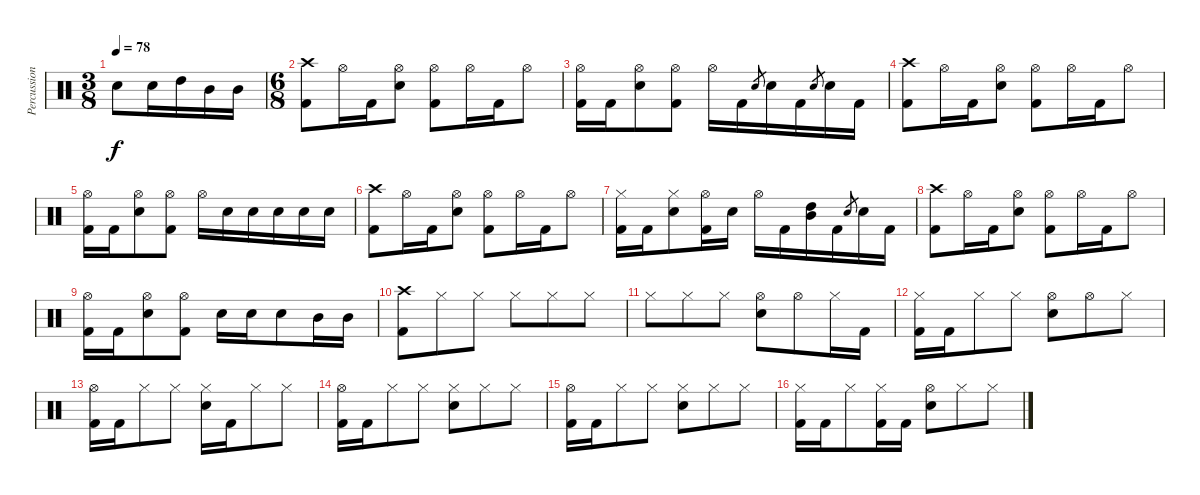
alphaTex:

\track ("Percussion" "Percussion") {instrument percussion}
\staff {score}
\articulation defaults
\ts (3 8)
\tempo 78
\clef neutral
\ks c "Electric Snare (hit)".8{dy f} "Electric Snare (hit)".16 "High Tom (hit)".16 "Mid Tom (hit)".16 "Mid Tom (hit)".16
|
\ts (6 8)
("Crash high (hit)" "Kick (hit) 2").8 "Hi-Hat (open)".16 "Kick (hit) 2".16 ("Hi-Hat (open)" "Electric Snare (hit)").8 ("Hi-Hat (open)" "Kick (hit) 2").8 "Hi-Hat (open)".16 "Kick (hit) 2".16 "Hi-Hat (open)".8 |
("Hi-Hat (open)" "Kick (hit) 2").16 "Kick (hit) 2".16 ("Hi-Hat (open)" "Electric Snare (hit)").8 ("Hi-Hat (open)" "Kick (hit) 2").8 "Hi-Hat (open)".16 "Kick (hit) 2".16 "Electric Snare (hit)".8{gr} "Electric Snare (hit)".16 "Kick (hit) 2".16 "Electric Snare (hit)".8{gr} "Electric Snare (hit)".16 "Kick (hit) 2".16 |
("Crash high (hit)" "Kick (hit) 2").8 "Hi-Hat (open)".16 "Kick (hit) 2".16 ("Hi-Hat (open)" "Electric Snare (hit)").8 ("Hi-Hat (open)" "Kick (hit) 2").8 "Hi-Hat (open)".16 "Kick (hit) 2".16 "Hi-Hat (open)".8 |
("Hi-Hat (open)" "Kick (hit) 2").16 "Kick (hit) 2".16 ("Hi-Hat (open)" "Electric Snare (hit)").8 ("Hi-Hat (open)" "Kick (hit) 2").8 "Hi-Hat (open)".16 "Electric Snare (hit)".16 "Electric Snare (hit)".16 "Electric Snare (hit)".16 "Electric Snare (hit)".16 "Electric Snare (hit)".16 |
("Crash high (hit)" "Kick (hit) 2").8 "Hi-Hat (open)".16 "Kick (hit) 2".16 ("Hi-Hat (open)" "Electric Snare (hit)").8 ("Hi-Hat (open)" "Kick (hit) 2").8 "Hi-Hat (open)".16 "Kick (hit) 2".16 "Hi-Hat (open)".8 |
("Hi-Hat (closed)" "Kick (hit) 2").16 "Kick (hit) 2".16 ("Hi-Hat (closed)" "Electric Snare (hit)").8 ("Hi-Hat (open)" "Kick (hit) 2").16 "Electric Snare (hit)".16 "Hi-Hat (open)".16 "Kick (hit) 2".16 ("High Tom (hit)" "Mid Tom (hit)").16 "Kick (hit) 2".16 "Electric Snare (hit)".8{gr} "Electric Snare (hit)".16 "Kick (hit) 2".16 |
("Crash high (hit)" "Kick (hit) 2").8 "Hi-Hat (open)".16 "Kick (hit) 2".16 ("Hi-Hat (open)" "Electric Snare (hit)").8 ("Hi-Hat (open)" "Kick (hit) 2").8 "Hi-Hat (open)".16 "Kick (hit) 2".16 "Hi-Hat (open)".8 |
("Hi-Hat (open)" "Kick (hit) 2").16 "Kick (hit) 2".16 ("Hi-Hat (open)" "Electric Snare (hit)").8 ("Hi-Hat (open)" "Kick (hit) 2").8 "Electric Snare (hit)".16 "Electric Snare (hit)".16 "Electric Snare (hit)".8 "Mid Tom (hit)".16 "Mid Tom (hit)".16 |
("Crash high (hit)" "Kick (hit) 2").8 "Hi-Hat (closed)".8 "Hi-Hat (closed)".8 "Hi-Hat (closed)".8 "Hi-Hat (closed)".8 "Hi-Hat (closed)".8 |
"Hi-Hat (closed)".8 "Hi-Hat (closed)".8 "Hi-Hat (closed)".8 ("Hi-Hat (open)" "Electric Snare (hit)").8 "Hi-Hat (open)".8 "Hi-Hat (closed)".16 "Kick (hit) 2".16 |
("Hi-Hat (closed)" "Kick (hit) 2").16 "Kick (hit) 2".16 "Hi-Hat (closed)".8 "Hi-Hat (closed)".8 ("Hi-Hat (open)" "Electric Snare (hit)").8 "Hi-Hat (open)".8 "Hi-Hat (closed)".8 |
("Hi-Hat (open)" "Kick (hit) 2").16 "Kick (hit) 2".16 "Hi-Hat (closed)".8 "Hi-Hat (closed)".8 ("Hi-Hat (closed)" "Electric Snare (hit)").16 "Kick (hit) 2".16 "Hi-Hat (closed)".8 "Hi-Hat (closed)".8 |
("Hi-Hat (open)" "Kick (hit) 2").16 "Kick (hit) 2".16 "Hi-Hat (closed)".8 "Hi-Hat (closed)".8 ("Hi-Hat (closed)" "Electric Snare (hit)").8 "Hi-Hat (closed)".8 "Hi-Hat (closed)".8 |
("Hi-Hat (open)" "Kick (hit) 2").16 "Kick (hit) 2".16 "Hi-Hat (closed)".8 "Hi-Hat (closed)".8 ("Hi-Hat (closed)" "Electric Snare (hit)").8 "Hi-Hat (closed)".8 "Hi-Hat (closed)".8 |
("Hi-Hat (closed)" "Kick (hit) 2").16 "Kick (hit) 2".16 "Hi-Hat (closed)".8 ("Hi-Hat (closed)" "Kick (hit) 2").16 "Kick (hit) 2".16 ("Hi-Hat (open)" "Electric Snare (hit)").8 "Hi-Hat (closed)".8 "Hi-Hat (closed)".8
